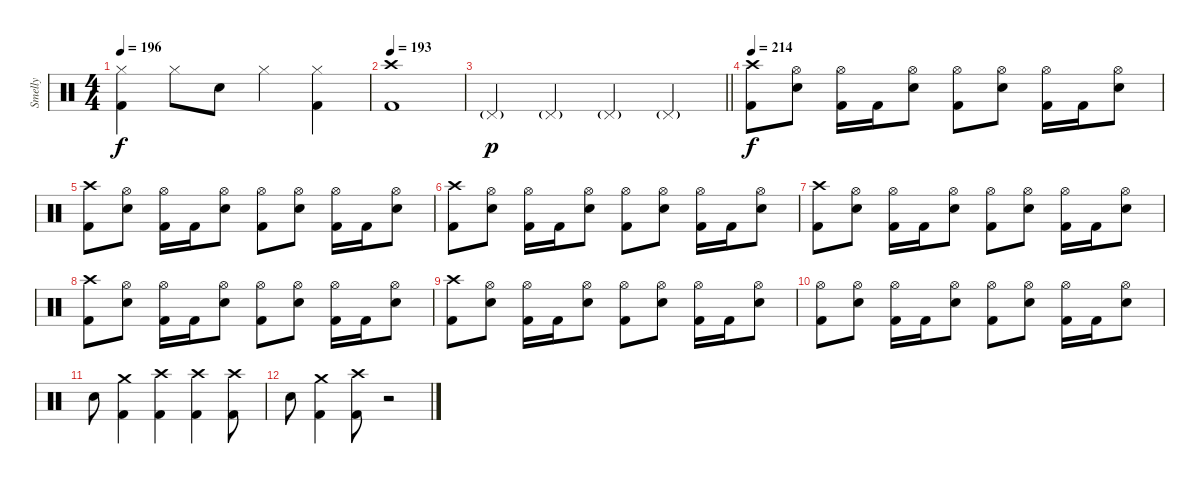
\track ("Smelly" "Smelly") {instrument percussion}
\staff {score}
\articulation defaults
\ts (4 4)
\tempo 196
\clef neutral
\ks c
("Hi-Hat (closed)" "Kick (hit) 2").4{dy f} "Hi-Hat (closed)".8 "Electric Snare (hit)".8 "Hi-Hat (closed)".4 ("Hi-Hat (closed)" "Kick (hit) 2").4 |
\tempo 193
("Crash high (hit)" "Kick (hit) 2").1 |
\barLineRight lightlight "Pedal Hi-Hat (hit)"{g}.4{dy p} "Pedal Hi-Hat (hit)"{g}.4 "Pedal Hi-Hat (hit)"{g}.4 "Pedal Hi-Hat (hit)"{g}.4
|
\section ("" "")
\tempo 214
("Crash high (hit)" "Kick (hit) 2").8{dy f} ("Hi-Hat (open)" "Electric Snare (hit)").8 ("Hi-Hat (open)" "Kick (hit) 2").16 "Kick (hit) 2".16 ("Hi-Hat (open)" "Electric Snare (hit)").8 ("Hi-Hat (open)" "Kick (hit) 2").8 ("Hi-Hat (open)" "Electric Snare (hit)").8 ("Hi-Hat (open)" "Kick (hit) 2").16 "Kick (hit) 2".16 ("Hi-Hat (open)" "Electric Snare (hit)").8 |
("Crash high (hit)" "Kick (hit) 2").8 ("Hi-Hat (open)" "Electric Snare (hit)").8 ("Hi-Hat (open)" "Kick (hit) 2").16 "Kick (hit) 2".16 ("Hi-Hat (open)" "Electric Snare (hit)").8 ("Hi-Hat (open)" "Kick (hit) 2").8 ("Hi-Hat (open)" "Electric Snare (hit)").8 ("Hi-Hat (open)" "Kick (hit) 2").16 "Kick (hit) 2".16 ("Hi-Hat (open)" "Electric Snare (hit)").8 |
("Crash high (hit)" "Kick (hit) 2").8 ("Hi-Hat (open)" "Electric Snare (hit)").8 ("Hi-Hat (open)" "Kick (hit) 2").16 "Kick (hit) 2".16 ("Hi-Hat (open)" "Electric Snare (hit)").8 ("Hi-Hat (open)" "Kick (hit) 2").8 ("Hi-Hat (open)" "Electric Snare (hit)").8 ("Hi-Hat (open)" "Kick (hit) 2").16 "Kick (hit) 2".16 ("Hi-Hat (open)" "Electric Snare (hit)").8 |
("Crash high (hit)" "Kick (hit) 2").8 ("Hi-Hat (open)" "Electric Snare (hit)").8 ("Hi-Hat (open)" "Kick (hit) 2").16 "Kick (hit) 2".16 ("Hi-Hat (open)" "Electric Snare (hit)").8 ("Hi-Hat (open)" "Kick (hit) 2").8 ("Hi-Hat (open)" "Electric Snare (hit)").8 ("Hi-Hat (open)" "Kick (hit) 2").16 "Kick (hit) 2".16 ("Hi-Hat (open)" "Electric Snare (hit)").8 |
("Crash high (hit)" "Kick (hit) 2").8 ("Hi-Hat (open)" "Electric Snare (hit)").8 ("Hi-Hat (open)" "Kick (hit) 2").16 "Kick (hit) 2".16 ("Hi-Hat (open)" "Electric Snare (hit)").8 ("Hi-Hat (open)" "Kick (hit) 2").8 ("Hi-Hat (open)" "Electric Snare (hit)").8 ("Hi-Hat (open)" "Kick (hit) 2").16 "Kick (hit) 2".16 ("Hi-Hat (open)" "Electric Snare (hit)").8 |
("Crash high (hit)" "Kick (hit) 2").8 ("Hi-Hat (open)" "Electric Snare (hit)").8 ("Hi-Hat (open)" "Kick (hit) 2").16 "Kick (hit) 2".16 ("Hi-Hat (open)" "Electric Snare (hit)").8 ("Hi-Hat (open)" "Kick (hit) 2").8 ("Hi-Hat (open)" "Electric Snare (hit)").8 ("Hi-Hat (open)" "Kick (hit) 2").16 "Kick (hit) 2".16 ("Hi-Hat (open)" "Electric Snare (hit)").8 |
("Hi-Hat (open)" "Kick (hit) 2").8 ("Hi-Hat (open)" "Electric Snare (hit)").8 ("Hi-Hat (open)" "Kick (hit) 2").16 "Kick (hit) 2".16 ("Hi-Hat (open)" "Electric Snare (hit)").8 ("Hi-Hat (open)" "Kick (hit) 2").8 ("Hi-Hat (open)" "Electric Snare (hit)").8 ("Hi-Hat (open)" "Kick (hit) 2").16 "Kick (hit) 2".16 ("Hi-Hat (open)" "Electric Snare (hit)").8 |
"Electric Snare (hit)".8 ("Crash medium (hit)" "Kick (hit) 2").4 ("Crash high (hit)" "Kick (hit) 2").4 ("Crash high (hit)" "Kick (hit) 2").4 ("Crash high (hit)" "Kick (hit) 2").8 |
"Electric Snare (hit)".8 ("Crash medium (hit)" "Kick (hit) 2").4 ("Crash high (hit)" "Kick (hit) 2").8 r.2
